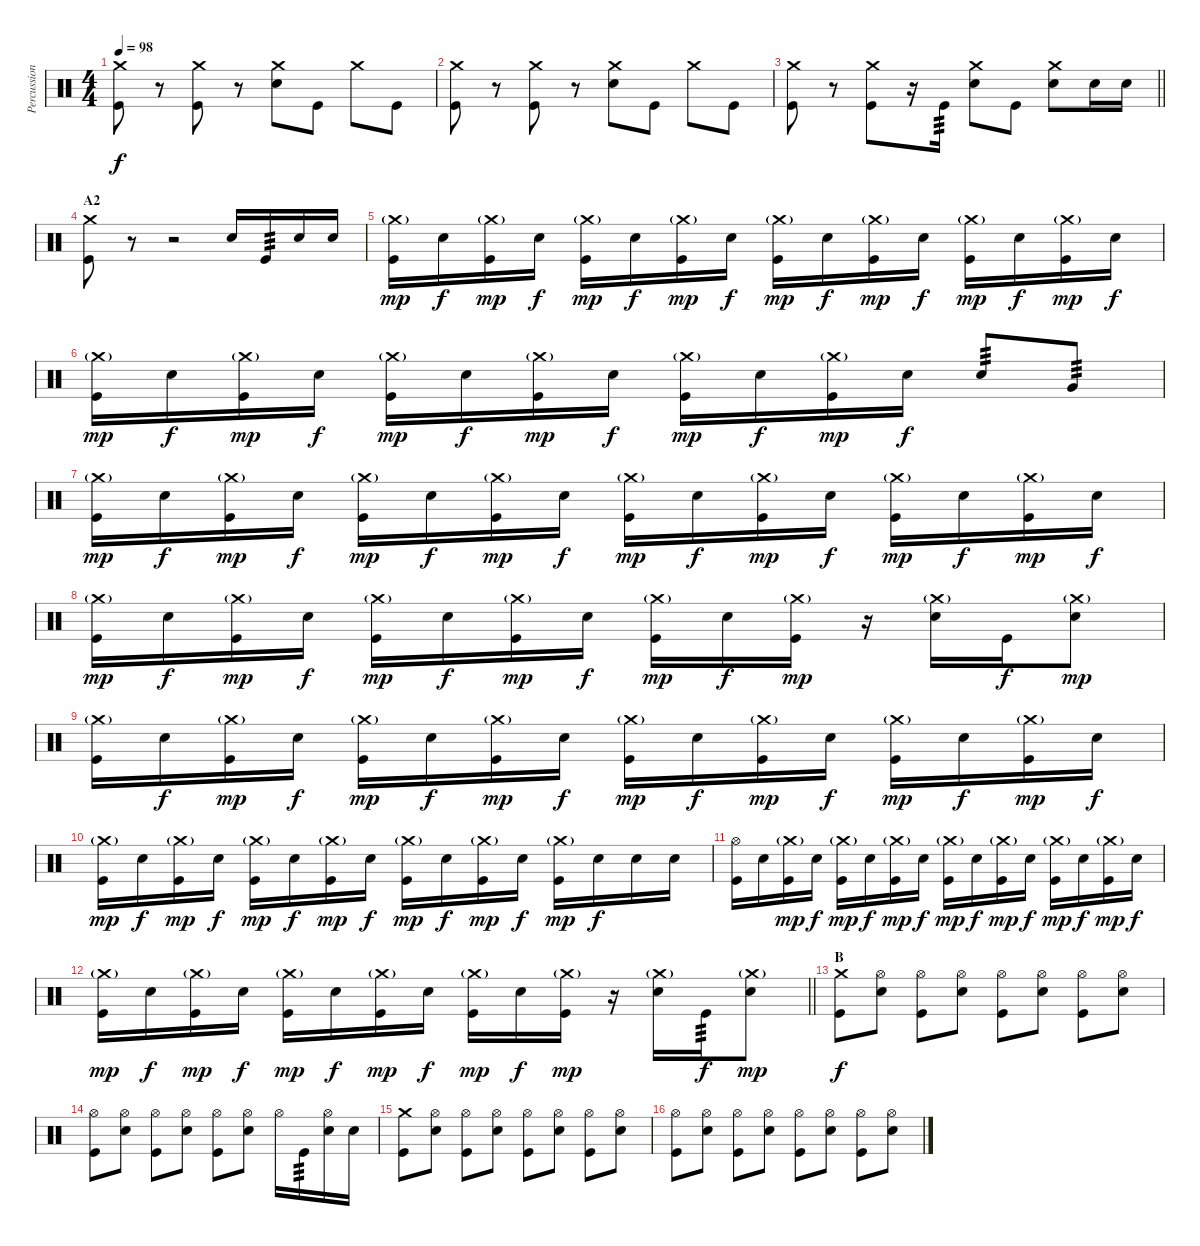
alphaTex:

\track ("Percussion" "Percussion") {instrument percussion}
\staff {score}
\articulation defaults
\ts (4 4)
\tempo 98
\clef neutral
\ks c
("Crash medium (hit)" "Kick (hit)").8{dy f} r.8 ("Crash medium (hit)" "Kick (hit)").8 r.8 ("Crash medium (hit)" "Snare (hit) 2").8 "Kick (hit)".8 "Crash medium (hit)".8 "Kick (hit)".8 |
("Crash medium (hit)" "Kick (hit)").8 r.8 ("Crash medium (hit)" "Kick (hit)").8 r.8 ("Crash medium (hit)" "Snare (hit) 2").8 "Kick (hit)".8 "Crash medium (hit)".8 "Kick (hit)".8 |
\barLineRight lightlight
("Crash medium (hit)" "Kick (hit)").8 r.8 ("Crash medium (hit)" "Kick (hit)").8 r.16 "Kick (hit)".16{tp 3} ("Crash medium (hit)" "Snare (hit) 2").8 "Kick (hit)".8 ("Crash medium (hit)" "Snare (hit) 2").8 "Snare (hit) 2".16 "Snare (hit) 2".16 |
\section ("" "A2")
("Kick (hit)" "Crash medium (hit)").8 r.8 r.2 "Snare (hit) 2".16 "Kick (hit)".16{tp 3} "Snare (hit) 2".16 "Snare (hit) 2".16 |
("Kick (hit)" "Crash medium (hit)"{g}).16{dy mp} "Snare (hit) 2".16{dy f} ("Kick (hit)" "Crash medium (hit)"{g}).16{dy mp} "Snare (hit) 2".16{dy f} ("Kick (hit)" "Crash medium (hit)"{g}).16{dy mp} "Snare (hit) 2".16{dy f} ("Kick (hit)" "Crash medium (hit)"{g}).16{dy mp} "Snare (hit) 2".16{dy f} ("Kick (hit)" "Crash medium (hit)"{g}).16{dy mp} "Snare (hit) 2".16{dy f} ("Kick (hit)" "Crash medium (hit)"{g}).16{dy mp} "Snare (hit) 2".16{dy f} ("Kick (hit)" "Crash medium (hit)"{g}).16{dy mp} "Snare (hit) 2".16{dy f} ("Kick (hit)" "Crash medium (hit)"{g}).16{dy mp} "Snare (hit) 2".16{dy f} |
("Kick (hit)" "Crash medium (hit)"{g}).16{dy mp} "Snare (hit) 2".16{dy f} ("Kick (hit)" "Crash medium (hit)"{g}).16{dy mp} "Snare (hit) 2".16{dy f} ("Kick (hit)" "Crash medium (hit)"{g}).16{dy mp} "Snare (hit) 2".16{dy f} ("Kick (hit)" "Crash medium (hit)"{g}).16{dy mp} "Snare (hit) 2".16{dy f} ("Kick (hit)" "Crash medium (hit)"{g}).16{dy mp} "Snare (hit) 2".16{dy f} ("Kick (hit)" "Crash medium (hit)"{g}).16{dy mp} "Snare (hit) 2".16{dy f} "Snare (hit) 2".8{tp 3} "Very Low Tom (hit)".8{tp 3} |
("Kick (hit)" "Crash medium (hit)"{g}).16{dy mp} "Snare (hit) 2".16{dy f} ("Kick (hit)" "Crash medium (hit)"{g}).16{dy mp} "Snare (hit) 2".16{dy f} ("Kick (hit)" "Crash medium (hit)"{g}).16{dy mp} "Snare (hit) 2".16{dy f} ("Kick (hit)" "Crash medium (hit)"{g}).16{dy mp} "Snare (hit) 2".16{dy f} ("Kick (hit)" "Crash medium (hit)"{g}).16{dy mp} "Snare (hit) 2".16{dy f} ("Kick (hit)" "Crash medium (hit)"{g}).16{dy mp} "Snare (hit) 2".16{dy f} ("Kick (hit)" "Crash medium (hit)"{g}).16{dy mp} "Snare (hit) 2".16{dy f} ("Kick (hit)" "Crash medium (hit)"{g}).16{dy mp} "Snare (hit) 2".16{dy f} |
("Kick (hit)" "Crash medium (hit)"{g}).16{dy mp} "Snare (hit) 2".16{dy f} ("Kick (hit)" "Crash medium (hit)"{g}).16{dy mp} "Snare (hit) 2".16{dy f} ("Kick (hit)" "Crash medium (hit)"{g}).16{dy mp} "Snare (hit) 2".16{dy f} ("Kick (hit)" "Crash medium (hit)"{g}).16{dy mp} "Snare (hit) 2".16{dy f} ("Kick (hit)" "Crash medium (hit)"{g}).16{dy mp} "Snare (hit) 2".16{dy f} ("Kick (hit)" "Crash medium (hit)"{g}).16{dy mp} r.16 ("Snare (hit) 2" "Crash medium (hit)"{g}).16 "Kick (hit)".16{dy f} ("Snare (hit) 2" "Crash medium (hit)"{g}).8{dy mp} |
("Kick (hit)" "Crash medium (hit)"{g}).16 "Snare (hit) 2".16{dy f} ("Kick (hit)" "Crash medium (hit)"{g}).16{dy mp} "Snare (hit) 2".16{dy f} ("Kick (hit)" "Crash medium (hit)"{g}).16{dy mp} "Snare (hit) 2".16{dy f} ("Kick (hit)" "Crash medium (hit)"{g}).16{dy mp} "Snare (hit) 2".16{dy f} ("Kick (hit)" "Crash medium (hit)"{g}).16{dy mp} "Snare (hit) 2".16{dy f} ("Kick (hit)" "Crash medium (hit)"{g}).16{dy mp} "Snare (hit) 2".16{dy f} ("Kick (hit)" "Crash medium (hit)"{g}).16{dy mp} "Snare (hit) 2".16{dy f} ("Kick (hit)" "Crash medium (hit)"{g}).16{dy mp} "Snare (hit) 2".16{dy f} |
("Kick (hit)" "Crash medium (hit)"{g}).16{dy mp} "Snare (hit) 2".16{dy f} ("Kick (hit)" "Crash medium (hit)"{g}).16{dy mp} "Snare (hit) 2".16{dy f} ("Kick (hit)" "Crash medium (hit)"{g}).16{dy mp} "Snare (hit) 2".16{dy f} ("Kick (hit)" "Crash medium (hit)"{g}).16{dy mp} "Snare (hit) 2".16{dy f} ("Kick (hit)" "Crash medium (hit)"{g}).16{dy mp} "Snare (hit) 2".16{dy f} ("Kick (hit)" "Crash medium (hit)"{g}).16{dy mp} "Snare (hit) 2".16{dy f} ("Kick (hit)" "Crash medium (hit)"{g}).16{dy mp} "Snare (hit) 2".16{dy f} "Snare (hit) 2".16 "Snare (hit) 2".16 |
("Kick (hit)" "Hi-Hat (open)").16 "Snare (hit) 2".16 ("Kick (hit)" "Crash medium (hit)"{g}).16{dy mp} "Snare (hit) 2".16{dy f} ("Kick (hit)" "Crash medium (hit)"{g}).16{dy mp} "Snare (hit) 2".16{dy f} ("Kick (hit)" "Crash medium (hit)"{g}).16{dy mp} "Snare (hit) 2".16{dy f} ("Kick (hit)" "Crash medium (hit)"{g}).16{dy mp} "Snare (hit) 2".16{dy f} ("Kick (hit)" "Crash medium (hit)"{g}).16{dy mp} "Snare (hit) 2".16{dy f} ("Kick (hit)" "Crash medium (hit)"{g}).16{dy mp} "Snare (hit) 2".16{dy f} ("Kick (hit)" "Crash medium (hit)"{g}).16{dy mp} "Snare (hit) 2".16{dy f} |
\barLineRight lightlight
("Kick (hit)" "Crash medium (hit)"{g}).16{dy mp} "Snare (hit) 2".16{dy f} ("Kick (hit)" "Crash medium (hit)"{g}).16{dy mp} "Snare (hit) 2".16{dy f} ("Kick (hit)" "Crash medium (hit)"{g}).16{dy mp} "Snare (hit) 2".16{dy f} ("Kick (hit)" "Crash medium (hit)"{g}).16{dy mp} "Snare (hit) 2".16{dy f} ("Kick (hit)" "Crash medium (hit)"{g}).16{dy mp} "Snare (hit) 2".16{dy f} ("Kick (hit)" "Crash medium (hit)"{g}).16{dy mp} r.16 ("Snare (hit) 2" "Crash medium (hit)"{g}).16 "Kick (hit)".16{tp 3 dy f} ("Snare (hit) 2" "Crash medium (hit)"{g}).8{dy mp} |
\section ("" "B")
("Crash medium (hit)" "Kick (hit)").8{dy f} ("Hi-Hat (open)" "Snare (hit) 2").8 ("Hi-Hat (open)" "Kick (hit)").8 ("Hi-Hat (open)" "Snare (hit) 2").8 ("Hi-Hat (open)" "Kick (hit)").8 ("Hi-Hat (open)" "Snare (hit) 2").8 ("Hi-Hat (open)" "Kick (hit)").8 ("Hi-Hat (open)" "Snare (hit) 2").8 |
("Hi-Hat (open)" "Kick (hit)").8 ("Hi-Hat (open)" "Snare (hit) 2").8 ("Hi-Hat (open)" "Kick (hit)").8 ("Hi-Hat (open)" "Snare (hit) 2").8 ("Hi-Hat (open)" "Kick (hit)").8 ("Hi-Hat (open)" "Snare (hit) 2").8 "Hi-Hat (open)".16 "Kick (hit)".16{tp 3} ("Hi-Hat (open)" "Snare (hit) 2").16 "Snare (hit) 2".16 |
("Crash medium (hit)" "Kick (hit)").8 ("Hi-Hat (open)" "Snare (hit) 2").8 ("Hi-Hat (open)" "Kick (hit)").8 ("Hi-Hat (open)" "Snare (hit) 2").8 ("Hi-Hat (open)" "Kick (hit)").8 ("Hi-Hat (open)" "Snare (hit) 2").8 ("Hi-Hat (open)" "Kick (hit)").8 ("Hi-Hat (open)" "Snare (hit) 2").8 |
("Hi-Hat (open)" "Kick (hit)").8 ("Hi-Hat (open)" "Snare (hit) 2").8 ("Hi-Hat (open)" "Kick (hit)").8 ("Hi-Hat (open)" "Snare (hit) 2").8 ("Hi-Hat (open)" "Kick (hit)").8 ("Hi-Hat (open)" "Snare (hit) 2").8 ("Hi-Hat (open)" "Kick (hit)").8 ("Hi-Hat (open)" "Snare (hit) 2").8
